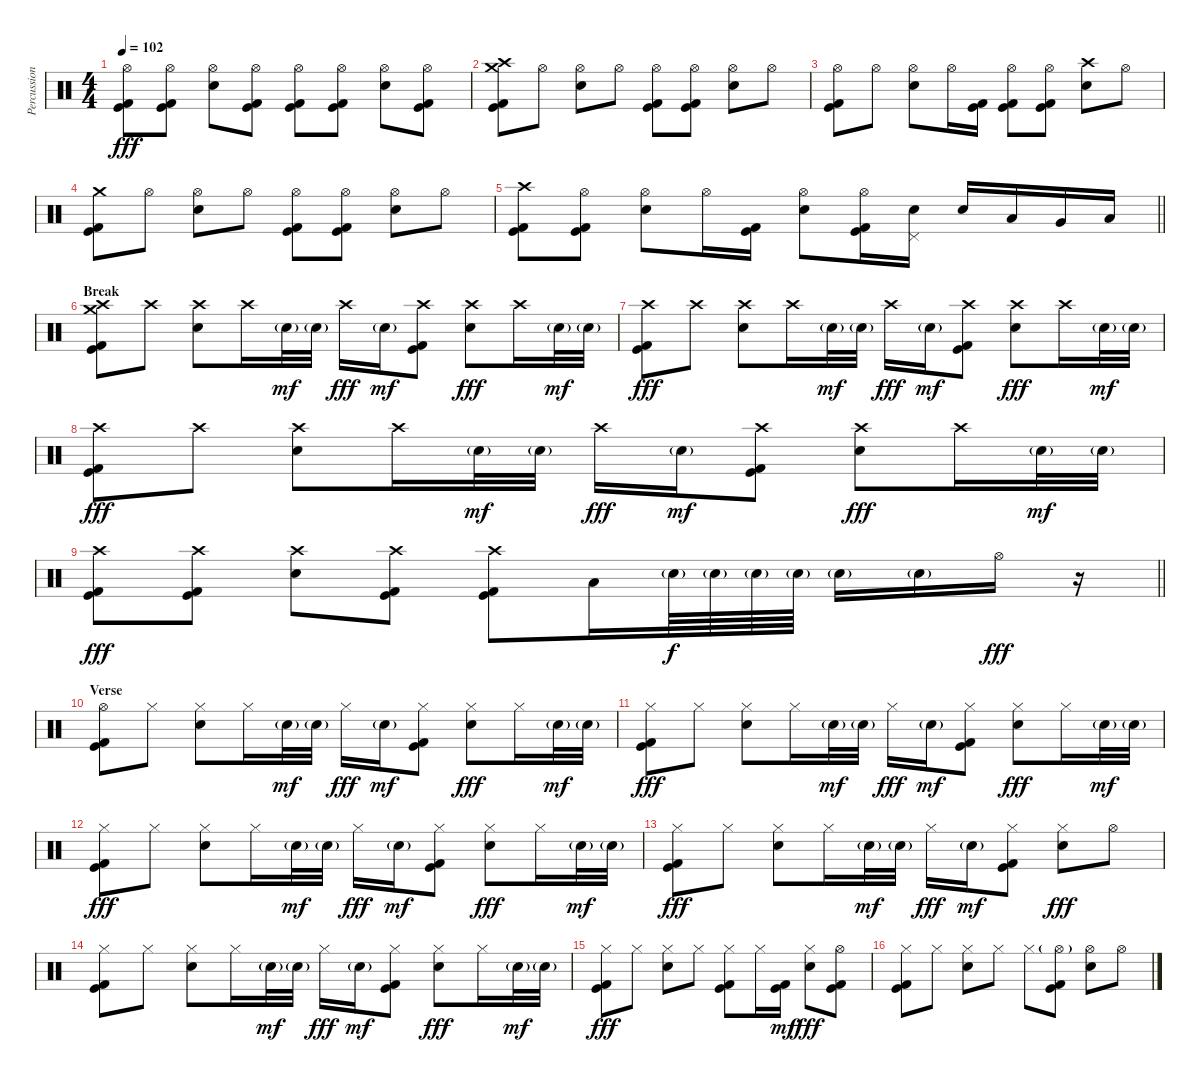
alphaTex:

\track ("Percussion" "Percussion") {instrument percussion}
\staff {score}
\articulation defaults
\ts (4 4)
\tempo 102
\clef neutral
\ks c
("Hi-Hat (open)" "Kick (hit)" "Kick (hit) 2").8{dy fff} ("Hi-Hat (open)" "Kick (hit)" "Kick (hit) 2").8 ("Hi-Hat (open)" "Electric Snare (hit)").8 ("Hi-Hat (open)" "Kick (hit)" "Kick (hit) 2").8 ("Hi-Hat (open)" "Kick (hit)" "Kick (hit) 2").8 ("Hi-Hat (open)" "Kick (hit)" "Kick (hit) 2").8 ("Hi-Hat (open)" "Electric Snare (hit)").8 ("Hi-Hat (open)" "Kick (hit)" "Kick (hit) 2").8 |
("Crash medium (hit)" "Crash high (hit)" "Kick (hit)" "Kick (hit) 2").8 "Hi-Hat (open)".8 ("Hi-Hat (open)" "Electric Snare (hit)").8 "Hi-Hat (open)".8 ("Hi-Hat (open)" "Kick (hit)" "Kick (hit) 2").8 ("Hi-Hat (open)" "Kick (hit)" "Kick (hit) 2").8 ("Hi-Hat (open)" "Electric Snare (hit)").8 "Hi-Hat (open)".8 |
("Hi-Hat (open)" "Kick (hit)" "Kick (hit) 2").8 "Hi-Hat (open)".8 ("Hi-Hat (open)" "Electric Snare (hit)").8 "Hi-Hat (open)".16 ("Kick (hit)" "Kick (hit) 2").16 ("Hi-Hat (open)" "Kick (hit)" "Kick (hit) 2").8 ("Hi-Hat (open)" "Kick (hit)" "Kick (hit) 2").8 ("Crash high (hit)" "Electric Snare (hit)").8 "Hi-Hat (open)".8 |
("Crash medium (hit)" "Kick (hit)" "Kick (hit) 2").8 "Hi-Hat (open)".8 ("Hi-Hat (open)" "Electric Snare (hit)").8 "Hi-Hat (open)".8 ("Hi-Hat (open)" "Kick (hit)" "Kick (hit) 2").8 ("Hi-Hat (open)" "Kick (hit)" "Kick (hit) 2").8 ("Hi-Hat (open)" "Electric Snare (hit)").8 "Hi-Hat (open)".8 |
\barLineRight lightlight
("Crash high (hit)" "Kick (hit)" "Kick (hit) 2").8 ("Hi-Hat (open)" "Kick (hit)" "Kick (hit) 2").8 ("Hi-Hat (open)" "Electric Snare (hit)").8 "Hi-Hat (open)".16 ("Kick (hit)" "Kick (hit) 2").16 ("Hi-Hat (open)" "Electric Snare (hit)").8 ("Hi-Hat (open)" "Kick (hit)" "Kick (hit) 2").16 ("Electric Snare (hit)" "Pedal Hi-Hat (hit)").16 "Electric Snare (hit)".16 "Low Tom (hit)".16 "Very Low Tom (hit)".16 "Low Floor Tom (hit)".16 |
\section ("" "Break")
("Crash medium (hit)" "Crash high (hit)" "Kick (hit)" "Kick (hit) 2").8 "Crash high (hit)".8 ("Crash high (hit)" "Electric Snare (hit)").8 "Crash high (hit)".16 "Electric Snare (hit)"{g}.32{dy mf} "Electric Snare (hit)"{g}.32 "Crash high (hit)".16{dy fff} "Electric Snare (hit)"{g}.16{dy mf} ("Crash high (hit)" "Kick (hit)" "Kick (hit) 2").8 ("Crash high (hit)" "Electric Snare (hit)").8{dy fff} "Crash high (hit)".16 "Electric Snare (hit)"{g}.32{dy mf} "Electric Snare (hit)"{g}.32 |
("Crash high (hit)" "Kick (hit)" "Kick (hit) 2").8{dy fff} "Crash high (hit)".8 ("Crash high (hit)" "Electric Snare (hit)").8 "Crash high (hit)".16 "Electric Snare (hit)"{g}.32{dy mf} "Electric Snare (hit)"{g}.32 "Crash high (hit)".16{dy fff} "Electric Snare (hit)"{g}.16{dy mf} ("Crash high (hit)" "Kick (hit)" "Kick (hit) 2").8 ("Crash high (hit)" "Electric Snare (hit)").8{dy fff} "Crash high (hit)".16 "Electric Snare (hit)"{g}.32{dy mf} "Electric Snare (hit)"{g}.32 |
("Crash high (hit)" "Kick (hit)" "Kick (hit) 2").8{dy fff} "Crash high (hit)".8 ("Crash high (hit)" "Electric Snare (hit)").8 "Crash high (hit)".16 "Electric Snare (hit)"{g}.32{dy mf} "Electric Snare (hit)"{g}.32 "Crash high (hit)".16{dy fff} "Electric Snare (hit)"{g}.16{dy mf} ("Crash high (hit)" "Kick (hit)" "Kick (hit) 2").8 ("Crash high (hit)" "Electric Snare (hit)").8{dy fff} "Crash high (hit)".16 "Electric Snare (hit)"{g}.32{dy mf} "Electric Snare (hit)"{g}.32 |
\barLineRight lightlight
("Crash high (hit)" "Kick (hit)" "Kick (hit) 2").8{dy fff} ("Crash high (hit)" "Kick (hit)" "Kick (hit) 2").8 ("Crash high (hit)" "Electric Snare (hit)").8 ("Crash high (hit)" "Kick (hit)" "Kick (hit) 2").8 ("Crash high (hit)" "Kick (hit)" "Kick (hit) 2").8 "Low Tom (hit)".16 "Electric Snare (hit)"{g}.64{dy f} "Electric Snare (hit)"{g}.64 "Electric Snare (hit)"{g}.64 "Electric Snare (hit)"{g}.64 "Electric Snare (hit)"{g}.16 "Electric Snare (hit)"{g}.16 "Hi-Hat (open)".16{dy fff} r.16 |
\section ("" "Verse")
("Hi-Hat (open)" "Kick (hit)" "Kick (hit) 2").8 "Hi-Hat (closed)".8 ("Hi-Hat (closed)" "Electric Snare (hit)").8 "Hi-Hat (closed)".16 "Electric Snare (hit)"{g}.32{dy mf} "Electric Snare (hit)"{g}.32 "Hi-Hat (closed)".16{dy fff} "Electric Snare (hit)"{g}.16{dy mf} ("Hi-Hat (closed)" "Kick (hit)" "Kick (hit) 2").8 ("Hi-Hat (closed)" "Electric Snare (hit)").8{dy fff} "Hi-Hat (closed)".16 "Electric Snare (hit)"{g}.32{dy mf} "Electric Snare (hit)"{g}.32 |
("Hi-Hat (closed)" "Kick (hit)" "Kick (hit) 2").8{dy fff} "Hi-Hat (closed)".8 ("Hi-Hat (closed)" "Electric Snare (hit)").8 "Hi-Hat (closed)".16 "Electric Snare (hit)"{g}.32{dy mf} "Electric Snare (hit)"{g}.32 "Hi-Hat (closed)".16{dy fff} "Electric Snare (hit)"{g}.16{dy mf} ("Hi-Hat (closed)" "Kick (hit)" "Kick (hit) 2").8 ("Hi-Hat (closed)" "Electric Snare (hit)").8{dy fff} "Hi-Hat (closed)".16 "Electric Snare (hit)"{g}.32{dy mf} "Electric Snare (hit)"{g}.32 |
("Hi-Hat (closed)" "Kick (hit)" "Kick (hit) 2").8{dy fff} "Hi-Hat (closed)".8 ("Hi-Hat (closed)" "Electric Snare (hit)").8 "Hi-Hat (closed)".16 "Electric Snare (hit)"{g}.32{dy mf} "Electric Snare (hit)"{g}.32 "Hi-Hat (closed)".16{dy fff} "Electric Snare (hit)"{g}.16{dy mf} ("Hi-Hat (closed)" "Kick (hit)" "Kick (hit) 2").8 ("Hi-Hat (closed)" "Electric Snare (hit)").8{dy fff} "Hi-Hat (closed)".16 "Electric Snare (hit)"{g}.32{dy mf} "Electric Snare (hit)"{g}.32 |
("Hi-Hat (closed)" "Kick (hit)" "Kick (hit) 2").8{dy fff} "Hi-Hat (closed)".8 ("Hi-Hat (closed)" "Electric Snare (hit)").8 "Hi-Hat (closed)".16 "Electric Snare (hit)"{g}.32{dy mf} "Electric Snare (hit)"{g}.32 "Hi-Hat (closed)".16{dy fff} "Electric Snare (hit)"{g}.16{dy mf} ("Hi-Hat (closed)" "Kick (hit)" "Kick (hit) 2").8 ("Hi-Hat (closed)" "Electric Snare (hit)").8{dy fff} "Hi-Hat (open)".8 |
("Hi-Hat (closed)" "Kick (hit)" "Kick (hit) 2").8 "Hi-Hat (closed)".8 ("Hi-Hat (closed)" "Electric Snare (hit)").8 "Hi-Hat (closed)".16 "Electric Snare (hit)"{g}.32{dy mf} "Electric Snare (hit)"{g}.32 "Hi-Hat (closed)".16{dy fff} "Electric Snare (hit)"{g}.16{dy mf} ("Hi-Hat (closed)" "Kick (hit)" "Kick (hit) 2").8 ("Hi-Hat (closed)" "Electric Snare (hit)").8{dy fff} "Hi-Hat (closed)".16 "Electric Snare (hit)"{g}.32{dy mf} "Electric Snare (hit)"{g}.32 |
("Hi-Hat (closed)" "Kick (hit)" "Kick (hit) 2").8{dy fff} "Hi-Hat (closed)".8 ("Hi-Hat (closed)" "Electric Snare (hit)").8 "Hi-Hat (closed)".8 ("Hi-Hat (closed)" "Kick (hit)" "Kick (hit) 2").8 "Hi-Hat (closed)".16 ("Kick (hit)" "Kick (hit) 2").16{dy mf} ("Hi-Hat (closed)" "Electric Snare (hit)").8{dy fff} ("Hi-Hat (open)" "Kick (hit)" "Kick (hit) 2").8 |
("Hi-Hat (closed)" "Kick (hit)" "Kick (hit) 2").8 "Hi-Hat (closed)".8 ("Hi-Hat (closed)" "Electric Snare (hit)").8 "Hi-Hat (closed)".8 "Hi-Hat (closed)".8 ("Hi-Hat (open)"{g} "Kick (hit)" "Kick (hit) 2").8 ("Hi-Hat (open)" "Electric Snare (hit)").8 "Hi-Hat (open)".8
